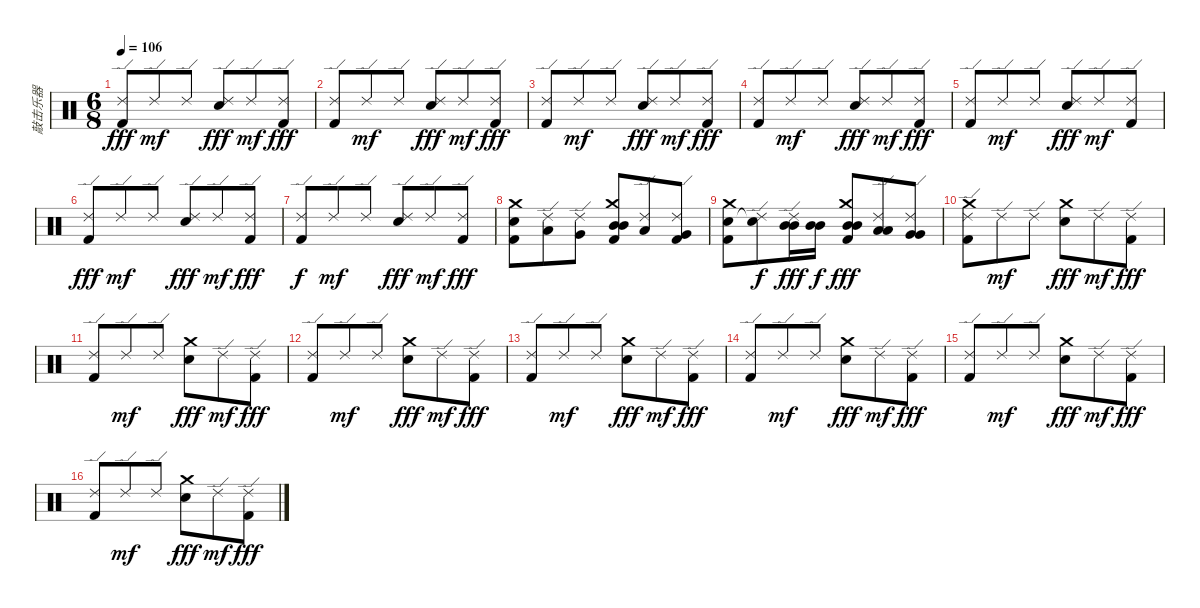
\track ("敲击乐器" "敲击乐器") {instrument percussion}
\staff {score}
\articulation defaults
\ts (6 8)
\tempo 106
\clef neutral
\ks c
("Ride (edge) 2" "Kick (hit) 2").8{dy fff} "Ride (edge) 2".8{dy mf} "Ride (edge) 2".8 ("Ride (edge) 2" "Snare (hit) 2").8{dy fff} "Ride (edge) 2".8{dy mf} ("Ride (edge) 2" "Kick (hit) 2").8{dy fff} |
("Ride (edge) 2" "Kick (hit) 2").8 "Ride (edge) 2".8{dy mf} "Ride (edge) 2".8 ("Ride (edge) 2" "Snare (hit) 2").8{dy fff} "Ride (edge) 2".8{dy mf} ("Ride (edge) 2" "Kick (hit) 2").8{dy fff} |
("Ride (edge) 2" "Kick (hit) 2").8 "Ride (edge) 2".8{dy mf} "Ride (edge) 2".8 ("Ride (edge) 2" "Snare (hit) 2").8{dy fff} "Ride (edge) 2".8{dy mf} ("Ride (edge) 2" "Kick (hit) 2").8{dy fff} |
("Ride (edge) 2" "Kick (hit) 2").8 "Ride (edge) 2".8{dy mf} "Ride (edge) 2".8 ("Ride (edge) 2" "Snare (hit) 2").8{dy fff} "Ride (edge) 2".8{dy mf} ("Ride (edge) 2" "Kick (hit) 2").8{dy fff} |
("Ride (edge) 2" "Kick (hit) 2").8 "Ride (edge) 2".8{dy mf} "Ride (edge) 2".8 ("Ride (edge) 2" "Snare (hit) 2").8{dy fff} "Ride (edge) 2".8{dy mf} ("Ride (edge) 2" "Kick (hit) 2").8 |
("Ride (edge) 2" "Kick (hit) 2").8{dy fff} "Ride (edge) 2".8{dy mf} "Ride (edge) 2".8 ("Ride (edge) 2" "Snare (hit) 2").8{dy fff} "Ride (edge) 2".8{dy mf} ("Ride (edge) 2" "Kick (hit) 2").8{dy fff} |
("Ride (edge) 2" "Kick (hit) 2").8{dy f} "Ride (edge) 2".8{dy mf} "Ride (edge) 2".8 ("Ride (edge) 2" "Snare (hit) 2").8{dy fff} "Ride (edge) 2".8{dy mf} ("Ride (edge) 2" "Kick (hit) 2").8{dy fff} |
("Crash medium (hit)" "Snare (hit) 2" "Kick (hit) 2").8 ("Ride (edge) 2" "Low Tom (hit)").8 ("Ride (edge) 2" "Very Low Tom (hit)").8 ("Crash medium (hit)" "Mid Tom (hit)" "Mid Tom (hit)" "Kick (hit) 2").8 ("Ride (edge) 2" "Low Tom (hit)").8 ("Ride (edge) 2" "Very Low Tom (hit)" "Kick (hit) 2").8 |
("Crash medium (hit)" "Snare (hit) 2" "Kick (hit) 2").8 ("Ride (edge) 2" "Snare (hit)"{t}).8{dy f} ("Ride (edge) 2" "Mid Tom (hit)" "Mid Tom (hit)").16{dy fff} ("Mid Tom (hit)" "Mid Tom (hit)").16{dy f} ("Crash medium (hit)" "Mid Tom (hit)" "Mid Tom (hit)" "Kick (hit) 2").8{dy fff} ("Ride (edge) 2" "Low Tom (hit)" "Low Tom (hit)").8 ("Ride (edge) 2" "Very Low Tom (hit)" "Very Low Tom (hit)").8 |
("Ride (edge) 2" "Crash medium (hit)" "Kick (hit) 2").8 "Ride (edge) 2".8{dy mf} "Ride (edge) 2".8 ("Crash medium (hit)" "Snare (hit) 2").8{dy fff} "Ride (edge) 2".8{dy mf} ("Ride (edge) 2" "Kick (hit) 2").8{dy fff} |
("Ride (edge) 2" "Kick (hit) 2").8 "Ride (edge) 2".8{dy mf} "Ride (edge) 2".8 ("Crash medium (hit)" "Snare (hit) 2").8{dy fff} "Ride (edge) 2".8{dy mf} ("Ride (edge) 2" "Kick (hit) 2").8{dy fff} |
("Ride (edge) 2" "Kick (hit) 2").8 "Ride (edge) 2".8{dy mf} "Ride (edge) 2".8 ("Crash medium (hit)" "Snare (hit) 2").8{dy fff} "Ride (edge) 2".8{dy mf} ("Ride (edge) 2" "Kick (hit) 2").8{dy fff} |
("Ride (edge) 2" "Kick (hit) 2").8 "Ride (edge) 2".8{dy mf} "Ride (edge) 2".8 ("Crash medium (hit)" "Snare (hit) 2").8{dy fff} "Ride (edge) 2".8{dy mf} ("Ride (edge) 2" "Kick (hit) 2").8{dy fff} |
("Ride (edge) 2" "Kick (hit) 2").8 "Ride (edge) 2".8{dy mf} "Ride (edge) 2".8 ("Crash medium (hit)" "Snare (hit) 2").8{dy fff} "Ride (edge) 2".8{dy mf} ("Ride (edge) 2" "Kick (hit) 2").8{dy fff} |
("Ride (edge) 2" "Kick (hit) 2").8 "Ride (edge) 2".8{dy mf} "Ride (edge) 2".8 ("Crash medium (hit)" "Snare (hit) 2").8{dy fff} "Ride (edge) 2".8{dy mf} ("Ride (edge) 2" "Kick (hit) 2").8{dy fff} |
("Ride (edge) 2" "Kick (hit) 2").8 "Ride (edge) 2".8{dy mf} "Ride (edge) 2".8 ("Crash medium (hit)" "Snare (hit) 2").8{dy fff} "Ride (edge) 2".8{dy mf} ("Ride (edge) 2" "Kick (hit) 2").8{dy fff}
